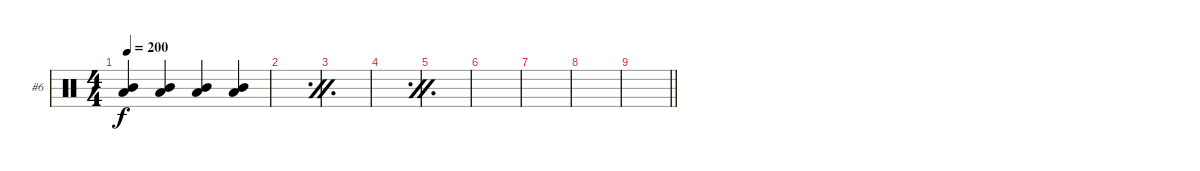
\bracketExtendMode groupsimilarinstruments
\firstSystemTrackNameOrientation horizontal
\otherSystemsTrackNameOrientation horizontal
\track ("Shawn \"Clown\" Crahan" "#6") {instrument percussion}
\staff {score}
\articulation defaults
\ts (4 4)
\tempo 200
\clef neutral
\ks c
("Low Tom (hit)" "Mid Tom (hit)").4{dy f} ("Low Tom (hit)" "Mid Tom (hit)").4 ("Low Tom (hit)" "Mid Tom (hit)").4 ("Low Tom (hit)" "Mid Tom (hit)").4 |
\simile firstofdouble
|
\simile secondofdouble
|
\simile firstofdouble
|
\simile secondofdouble
|
\simile none
|
|
|
\barLineRight lightlight
